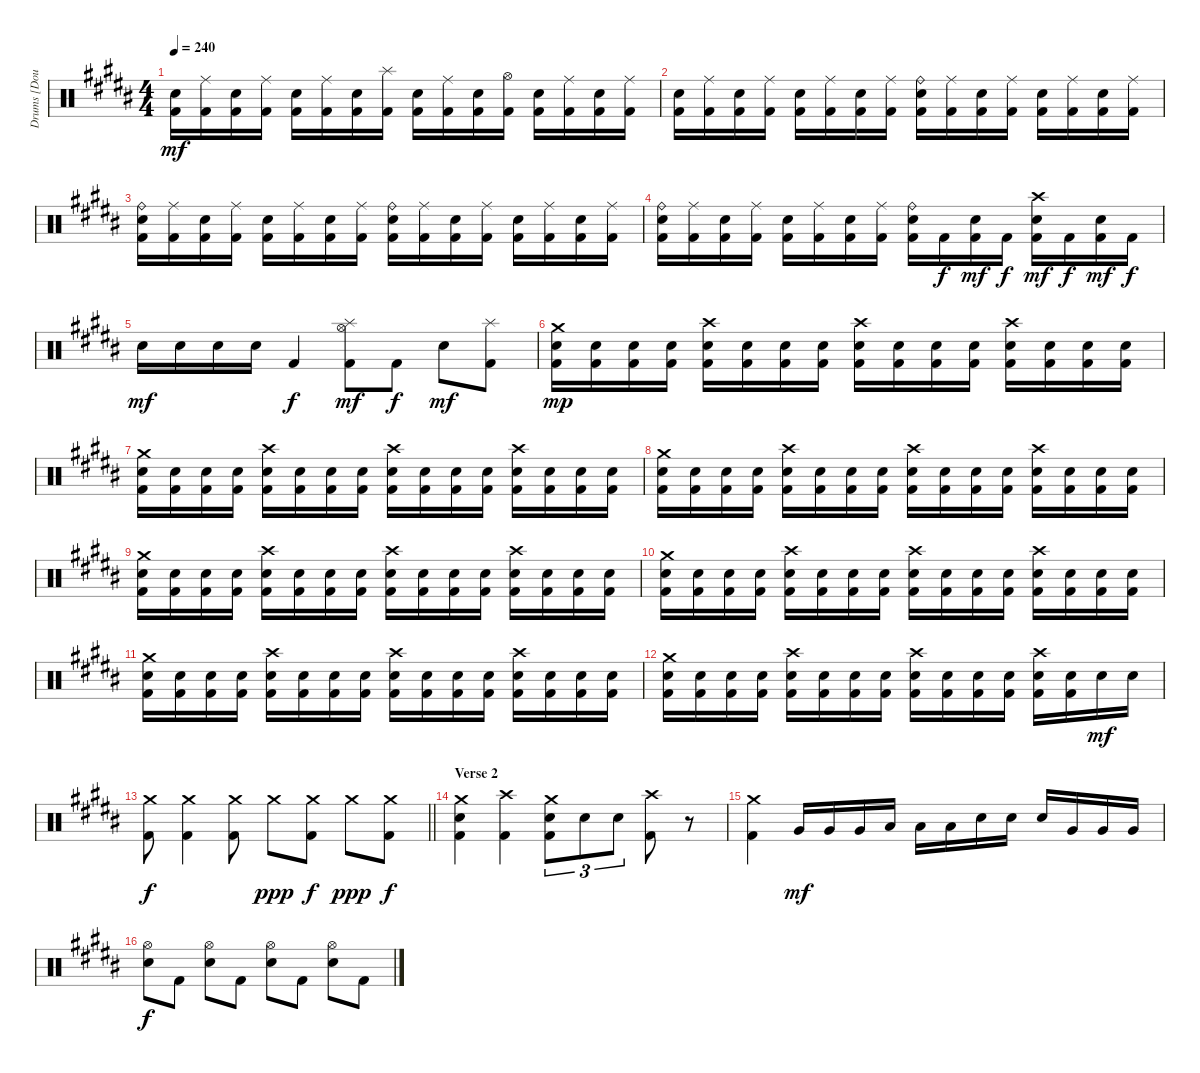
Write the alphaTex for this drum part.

\track ("Drums [Doug Anderson]" "Drums [Dou") {instrument percussion}
\staff {score}
\articulation defaults
\ts (4 4)
\tempo 240
\clef neutral
\ks b
("Electric Snare (hit)" "Kick (hit) 2").16{dy mf} ("Ride (middle)" "Kick (hit) 2").16 ("Electric Snare (hit)" "Kick (hit) 2").16 ("Ride (middle)" "Kick (hit) 2").16 ("Electric Snare (hit)" "Kick (hit) 2").16 ("Ride (middle)" "Kick (hit) 2").16 ("Electric Snare (hit)" "Kick (hit) 2").16 ("Splash (hit)" "Kick (hit) 2").16 ("Electric Snare (hit)" "Kick (hit) 2").16 ("Ride (middle)" "Kick (hit) 2").16 ("Electric Snare (hit)" "Kick (hit) 2").16 ("Hi-Hat (open)" "Kick (hit) 2").16 ("Electric Snare (hit)" "Kick (hit) 2").16 ("Ride (middle)" "Kick (hit) 2").16 ("Electric Snare (hit)" "Kick (hit) 2").16 ("Ride (middle)" "Kick (hit) 2").16 |
("Electric Snare (hit)" "Kick (hit) 2").16 ("Ride (middle)" "Kick (hit) 2").16 ("Electric Snare (hit)" "Kick (hit) 2").16 ("Ride (middle)" "Kick (hit) 2").16 ("Electric Snare (hit)" "Kick (hit) 2").16 ("Ride (middle)" "Kick (hit) 2").16 ("Electric Snare (hit)" "Kick (hit) 2").16 ("Ride (middle)" "Kick (hit) 2").16 ("Ride (bell)" "Electric Snare (hit)" "Kick (hit) 2").16 ("Ride (middle)" "Kick (hit) 2").16 ("Electric Snare (hit)" "Kick (hit) 2").16 ("Ride (middle)" "Kick (hit) 2").16 ("Electric Snare (hit)" "Kick (hit) 2").16 ("Ride (middle)" "Kick (hit) 2").16 ("Electric Snare (hit)" "Kick (hit) 2").16 ("Ride (middle)" "Kick (hit) 2").16 |
("Ride (bell)" "Electric Snare (hit)" "Kick (hit) 2").16 ("Ride (middle)" "Kick (hit) 2").16 ("Electric Snare (hit)" "Kick (hit) 2").16 ("Ride (middle)" "Kick (hit) 2").16 ("Electric Snare (hit)" "Kick (hit) 2").16 ("Ride (middle)" "Kick (hit) 2").16 ("Electric Snare (hit)" "Kick (hit) 2").16 ("Ride (middle)" "Kick (hit) 2").16 ("Ride (bell)" "Electric Snare (hit)" "Kick (hit) 2").16 ("Ride (middle)" "Kick (hit) 2").16 ("Electric Snare (hit)" "Kick (hit) 2").16 ("Ride (middle)" "Kick (hit) 2").16 ("Electric Snare (hit)" "Kick (hit) 2").16 ("Ride (middle)" "Kick (hit) 2").16 ("Electric Snare (hit)" "Kick (hit) 2").16 ("Ride (middle)" "Kick (hit) 2").16 |
("Ride (bell)" "Electric Snare (hit)" "Kick (hit) 2").16 ("Ride (middle)" "Kick (hit) 2").16 ("Electric Snare (hit)" "Kick (hit) 2").16 ("Ride (middle)" "Kick (hit) 2").16 ("Electric Snare (hit)" "Kick (hit) 2").16 ("Ride (middle)" "Kick (hit) 2").16 ("Electric Snare (hit)" "Kick (hit) 2").16 ("Ride (middle)" "Kick (hit) 2").16 ("Ride (bell)" "Electric Snare (hit)" "Kick (hit) 2").16 "Kick (hit) 2".16{dy f} ("Electric Snare (hit)" "Kick (hit) 2").16{dy mf} "Kick (hit) 2".16{dy f} ("Crash high (hit)" "Electric Snare (hit)" "Kick (hit) 2").16{dy mf} "Kick (hit) 2".16{dy f} ("Electric Snare (hit)" "Kick (hit) 2").16{dy mf} "Kick (hit) 2".16{dy f} |
"Electric Snare (hit)".16{dy mf} "Electric Snare (hit)".16 "Electric Snare (hit)".16 "Electric Snare (hit)".16 "Kick (hit) 2".4{dy f} ("Splash (hit)" "Hi-Hat (open)" "Kick (hit) 2").8{dy mf} "Kick (hit) 2".8{dy f} "Electric Snare (hit)".8{dy mf} ("Splash (hit)" "Kick (hit) 2").8 |
("Crash medium (hit)" "Electric Snare (hit)" "Kick (hit) 2").16{dy mp} ("Electric Snare (hit)" "Kick (hit) 2").16 ("Electric Snare (hit)" "Kick (hit) 2").16 ("Electric Snare (hit)" "Kick (hit) 2").16 ("Crash high (hit)" "Electric Snare (hit)" "Kick (hit) 2").16 ("Electric Snare (hit)" "Kick (hit) 2").16 ("Electric Snare (hit)" "Kick (hit) 2").16 ("Electric Snare (hit)" "Kick (hit) 2").16 ("Crash high (hit)" "Electric Snare (hit)" "Kick (hit) 2").16 ("Electric Snare (hit)" "Kick (hit) 2").16 ("Electric Snare (hit)" "Kick (hit) 2").16 ("Electric Snare (hit)" "Kick (hit) 2").16 ("Crash high (hit)" "Electric Snare (hit)" "Kick (hit) 2").16 ("Electric Snare (hit)" "Kick (hit) 2").16 ("Electric Snare (hit)" "Kick (hit) 2").16 ("Electric Snare (hit)" "Kick (hit) 2").16 |
("Crash medium (hit)" "Electric Snare (hit)" "Kick (hit) 2").16 ("Electric Snare (hit)" "Kick (hit) 2").16 ("Electric Snare (hit)" "Kick (hit) 2").16 ("Electric Snare (hit)" "Kick (hit) 2").16 ("Crash high (hit)" "Electric Snare (hit)" "Kick (hit) 2").16 ("Electric Snare (hit)" "Kick (hit) 2").16 ("Electric Snare (hit)" "Kick (hit) 2").16 ("Electric Snare (hit)" "Kick (hit) 2").16 ("Crash high (hit)" "Electric Snare (hit)" "Kick (hit) 2").16 ("Electric Snare (hit)" "Kick (hit) 2").16 ("Electric Snare (hit)" "Kick (hit) 2").16 ("Electric Snare (hit)" "Kick (hit) 2").16 ("Crash high (hit)" "Electric Snare (hit)" "Kick (hit) 2").16 ("Electric Snare (hit)" "Kick (hit) 2").16 ("Electric Snare (hit)" "Kick (hit) 2").16 ("Electric Snare (hit)" "Kick (hit) 2").16 |
("Crash medium (hit)" "Electric Snare (hit)" "Kick (hit) 2").16 ("Electric Snare (hit)" "Kick (hit) 2").16 ("Electric Snare (hit)" "Kick (hit) 2").16 ("Electric Snare (hit)" "Kick (hit) 2").16 ("Crash high (hit)" "Electric Snare (hit)" "Kick (hit) 2").16 ("Electric Snare (hit)" "Kick (hit) 2").16 ("Electric Snare (hit)" "Kick (hit) 2").16 ("Electric Snare (hit)" "Kick (hit) 2").16 ("Crash high (hit)" "Electric Snare (hit)" "Kick (hit) 2").16 ("Electric Snare (hit)" "Kick (hit) 2").16 ("Electric Snare (hit)" "Kick (hit) 2").16 ("Electric Snare (hit)" "Kick (hit) 2").16 ("Crash high (hit)" "Electric Snare (hit)" "Kick (hit) 2").16 ("Electric Snare (hit)" "Kick (hit) 2").16 ("Electric Snare (hit)" "Kick (hit) 2").16 ("Electric Snare (hit)" "Kick (hit) 2").16 |
("Crash medium (hit)" "Electric Snare (hit)" "Kick (hit) 2").16 ("Electric Snare (hit)" "Kick (hit) 2").16 ("Electric Snare (hit)" "Kick (hit) 2").16 ("Electric Snare (hit)" "Kick (hit) 2").16 ("Crash high (hit)" "Electric Snare (hit)" "Kick (hit) 2").16 ("Electric Snare (hit)" "Kick (hit) 2").16 ("Electric Snare (hit)" "Kick (hit) 2").16 ("Electric Snare (hit)" "Kick (hit) 2").16 ("Crash high (hit)" "Electric Snare (hit)" "Kick (hit) 2").16 ("Electric Snare (hit)" "Kick (hit) 2").16 ("Electric Snare (hit)" "Kick (hit) 2").16 ("Electric Snare (hit)" "Kick (hit) 2").16 ("Crash high (hit)" "Electric Snare (hit)" "Kick (hit) 2").16 ("Electric Snare (hit)" "Kick (hit) 2").16 ("Electric Snare (hit)" "Kick (hit) 2").16 ("Electric Snare (hit)" "Kick (hit) 2").16 |
("Crash medium (hit)" "Electric Snare (hit)" "Kick (hit) 2").16 ("Electric Snare (hit)" "Kick (hit) 2").16 ("Electric Snare (hit)" "Kick (hit) 2").16 ("Electric Snare (hit)" "Kick (hit) 2").16 ("Crash high (hit)" "Electric Snare (hit)" "Kick (hit) 2").16 ("Electric Snare (hit)" "Kick (hit) 2").16 ("Electric Snare (hit)" "Kick (hit) 2").16 ("Electric Snare (hit)" "Kick (hit) 2").16 ("Crash high (hit)" "Electric Snare (hit)" "Kick (hit) 2").16 ("Electric Snare (hit)" "Kick (hit) 2").16 ("Electric Snare (hit)" "Kick (hit) 2").16 ("Electric Snare (hit)" "Kick (hit) 2").16 ("Crash high (hit)" "Electric Snare (hit)" "Kick (hit) 2").16 ("Electric Snare (hit)" "Kick (hit) 2").16 ("Electric Snare (hit)" "Kick (hit) 2").16 ("Electric Snare (hit)" "Kick (hit) 2").16 |
("Crash medium (hit)" "Electric Snare (hit)" "Kick (hit) 2").16 ("Electric Snare (hit)" "Kick (hit) 2").16 ("Electric Snare (hit)" "Kick (hit) 2").16 ("Electric Snare (hit)" "Kick (hit) 2").16 ("Crash high (hit)" "Electric Snare (hit)" "Kick (hit) 2").16 ("Electric Snare (hit)" "Kick (hit) 2").16 ("Electric Snare (hit)" "Kick (hit) 2").16 ("Electric Snare (hit)" "Kick (hit) 2").16 ("Crash high (hit)" "Electric Snare (hit)" "Kick (hit) 2").16 ("Electric Snare (hit)" "Kick (hit) 2").16 ("Electric Snare (hit)" "Kick (hit) 2").16 ("Electric Snare (hit)" "Kick (hit) 2").16 ("Crash high (hit)" "Electric Snare (hit)" "Kick (hit) 2").16 ("Electric Snare (hit)" "Kick (hit) 2").16 ("Electric Snare (hit)" "Kick (hit) 2").16 ("Electric Snare (hit)" "Kick (hit) 2").16 |
("Crash medium (hit)" "Electric Snare (hit)" "Kick (hit) 2").16 ("Electric Snare (hit)" "Kick (hit) 2").16 ("Electric Snare (hit)" "Kick (hit) 2").16 ("Electric Snare (hit)" "Kick (hit) 2").16 ("Crash high (hit)" "Electric Snare (hit)" "Kick (hit) 2").16 ("Electric Snare (hit)" "Kick (hit) 2").16 ("Electric Snare (hit)" "Kick (hit) 2").16 ("Electric Snare (hit)" "Kick (hit) 2").16 ("Crash high (hit)" "Electric Snare (hit)" "Kick (hit) 2").16 ("Electric Snare (hit)" "Kick (hit) 2").16 ("Electric Snare (hit)" "Kick (hit) 2").16 ("Electric Snare (hit)" "Kick (hit) 2").16 ("Crash high (hit)" "Electric Snare (hit)" "Kick (hit) 2").16 ("Electric Snare (hit)" "Kick (hit) 2").16 "Electric Snare (hit)".16{dy mf} "Electric Snare (hit)".16 |
\barLineRight lightlight
("Crash medium (hit)" "Kick (hit) 2").8{dy f} ("Crash medium (hit)" "Kick (hit) 2").4 ("Crash medium (hit)" "Kick (hit) 2").8 "Crash medium (hit)".8{dy ppp} ("Crash medium (hit)" "Kick (hit) 2").8{dy f} "Crash medium (hit)".8{dy ppp} ("Crash medium (hit)" "Kick (hit) 2").8{dy f} |
\section ("" "Verse 2")
("Crash medium (hit)" "Electric Snare (hit)" "Kick (hit) 2").4 ("Crash high (hit)" "Kick (hit) 2").4 ("Crash medium (hit)" "Electric Snare (hit)" "Kick (hit) 2").8{tu (3 2)} "Electric Snare (hit)".8{tu (3 2)} "Electric Snare (hit)".8{tu (3 2)} ("Crash high (hit)" "Kick (hit) 2").8 r.8 |
("Crash medium (hit)" "Kick (hit) 2").4 "Very Low Tom (hit)".16{dy mf} "Very Low Tom (hit)".16 "Very Low Tom (hit)".16 "Low Floor Tom (hit)".16 "Low Floor Tom (hit)".16 "Low Floor Tom (hit)".16 "Electric Snare (hit)".16 "Electric Snare (hit)".16 "Electric Snare (hit)".16 "Very Low Tom (hit)".16 "Very Low Tom (hit)".16 "Very Low Tom (hit)".16 |
("Hi-Hat (open)" "Electric Snare (hit)").8{dy f} "Kick (hit) 2".8 ("Hi-Hat (open)" "Electric Snare (hit)").8 "Kick (hit) 2".8 ("Hi-Hat (open)" "Electric Snare (hit)").8 "Kick (hit) 2".8 ("Hi-Hat (open)" "Electric Snare (hit)").8 "Kick (hit) 2".8
